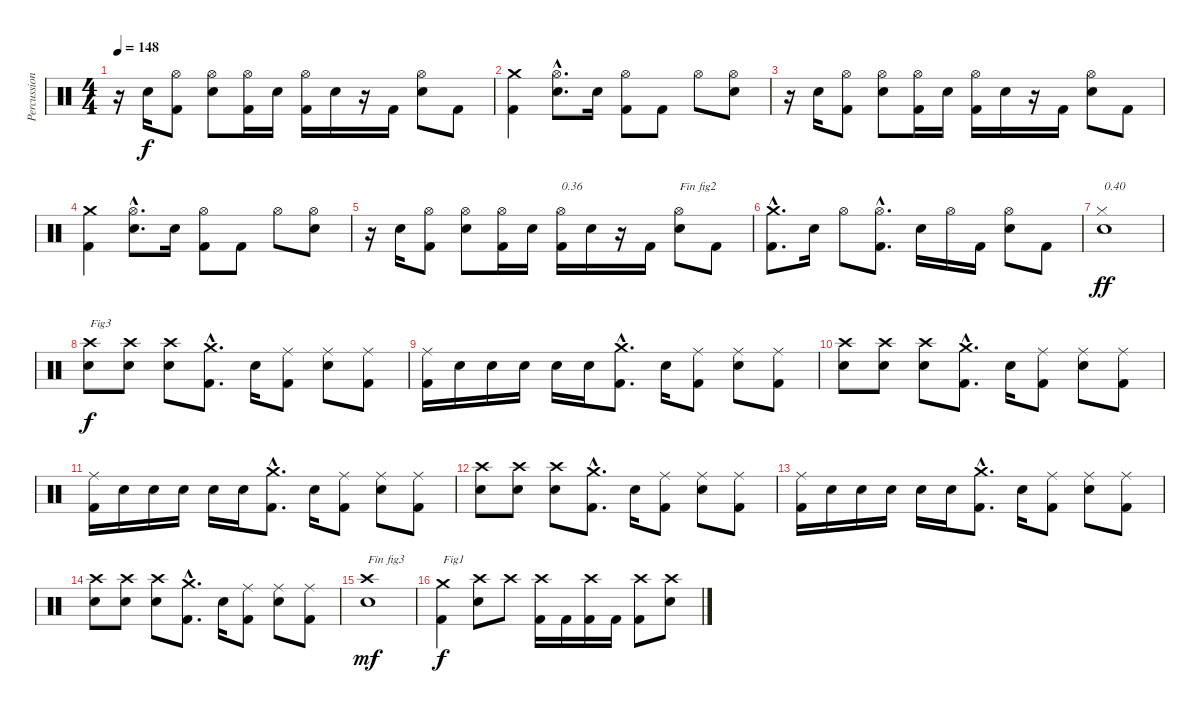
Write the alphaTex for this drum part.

\track ("Percussions" "Percussion") {instrument percussion}
\staff {score}
\articulation defaults
\ts (4 4)
\tempo 148
\clef neutral
\ks c
r.16{dy f} "Electric Snare (hit)".16 ("Kick (hit) 2" "Hi-Hat (open)").8 ("Electric Snare (hit)" "Hi-Hat (open)").8 ("Kick (hit) 2" "Hi-Hat (open)").16 "Electric Snare (hit)".16 ("Kick (hit) 2" "Hi-Hat (open)").16 "Electric Snare (hit)".16 r.16 "Kick (hit) 2".16 ("Electric Snare (hit)" "Hi-Hat (open)").8 "Kick (hit) 2".8 |
("Kick (hit) 2" "Crash medium (hit)").4 ("Electric Snare (hit)"{hac} "Hi-Hat (open)"{hac}).8{d} "Electric Snare (hit)".16 ("Kick (hit) 2" "Hi-Hat (open)").8 "Kick (hit) 2".8 "Hi-Hat (open)".8 ("Electric Snare (hit)" "Hi-Hat (open)").8 |
r.16 "Electric Snare (hit)".16 ("Kick (hit) 2" "Hi-Hat (open)").8 ("Electric Snare (hit)" "Hi-Hat (open)").8 ("Kick (hit) 2" "Hi-Hat (open)").16 "Electric Snare (hit)".16 ("Kick (hit) 2" "Hi-Hat (open)").16 "Electric Snare (hit)".16 r.16 "Kick (hit) 2".16 ("Electric Snare (hit)" "Hi-Hat (open)").8 "Kick (hit) 2".8 |
("Kick (hit) 2" "Crash medium (hit)").4 ("Electric Snare (hit)"{hac} "Hi-Hat (open)"{hac}).8{d} "Electric Snare (hit)".16 ("Kick (hit) 2" "Hi-Hat (open)").8 "Kick (hit) 2".8 "Hi-Hat (open)".8 ("Electric Snare (hit)" "Hi-Hat (open)").8 |
r.16 "Electric Snare (hit)".16 ("Kick (hit) 2" "Hi-Hat (open)").8 ("Electric Snare (hit)" "Hi-Hat (open)").8 ("Kick (hit) 2" "Hi-Hat (open)").16 "Electric Snare (hit)".16 ("Kick (hit) 2" "Hi-Hat (open)").16{txt "0.36"} "Electric Snare (hit)".16 r.16 "Kick (hit) 2".16 ("Electric Snare (hit)" "Hi-Hat (open)").8{txt "Fin fig2"} "Kick (hit) 2".8 |
("Kick (hit) 2"{hac} "Crash medium (hit)"{hac}).8{d} "Electric Snare (hit)".16 "Hi-Hat (open)".8 ("Kick (hit) 2"{hac} "Hi-Hat (open)"{hac}).8{d} "Electric Snare (hit)".16 "Hi-Hat (open)".16 "Kick (hit) 2".16 ("Electric Snare (hit)" "Hi-Hat (open)").8 "Kick (hit) 2".8 |
("Electric Snare (hit)" "Hi-Hat (closed)").1{txt "0.40" dy ff} |
("Electric Snare (hit)" "Crash high (hit)").8{txt "Fig3" dy f} ("Electric Snare (hit)" "Crash high (hit)").8 ("Electric Snare (hit)" "Crash high (hit)").8 ("Kick (hit) 2"{hac} "Crash medium (hit)"{hac}).8{d} "Electric Snare (hit)".16 ("Kick (hit) 2" "Ride (middle)").8 ("Electric Snare (hit)" "Ride (middle)").8 ("Kick (hit) 2" "Ride (middle)").8 |
("Kick (hit) 2" "Ride (middle)").16 "Electric Snare (hit)".16 "Electric Snare (hit)".16 "Electric Snare (hit)".16 "Electric Snare (hit)".16 "Electric Snare (hit)".16 ("Kick (hit) 2"{hac} "Crash medium (hit)"{hac}).8{d} "Electric Snare (hit)".16 ("Kick (hit) 2" "Ride (middle)").8 ("Electric Snare (hit)" "Ride (middle)").8 ("Kick (hit) 2" "Ride (middle)").8 |
("Electric Snare (hit)" "Crash high (hit)").8 ("Electric Snare (hit)" "Crash high (hit)").8 ("Electric Snare (hit)" "Crash high (hit)").8 ("Kick (hit) 2"{hac} "Crash medium (hit)"{hac}).8{d} "Electric Snare (hit)".16 ("Kick (hit) 2" "Ride (middle)").8 ("Electric Snare (hit)" "Ride (middle)").8 ("Kick (hit) 2" "Ride (middle)").8 |
("Kick (hit) 2" "Ride (middle)").16 "Electric Snare (hit)".16 "Electric Snare (hit)".16 "Electric Snare (hit)".16 "Electric Snare (hit)".16 "Electric Snare (hit)".16 ("Kick (hit) 2"{hac} "Crash medium (hit)"{hac}).8{d} "Electric Snare (hit)".16 ("Kick (hit) 2" "Ride (middle)").8 ("Electric Snare (hit)" "Ride (middle)").8 ("Kick (hit) 2" "Ride (middle)").8 |
("Electric Snare (hit)" "Crash high (hit)").8 ("Electric Snare (hit)" "Crash high (hit)").8 ("Electric Snare (hit)" "Crash high (hit)").8 ("Kick (hit) 2"{hac} "Crash medium (hit)"{hac}).8{d} "Electric Snare (hit)".16 ("Kick (hit) 2" "Ride (middle)").8 ("Electric Snare (hit)" "Ride (middle)").8 ("Kick (hit) 2" "Ride (middle)").8 |
("Kick (hit) 2" "Ride (middle)").16 "Electric Snare (hit)".16 "Electric Snare (hit)".16 "Electric Snare (hit)".16 "Electric Snare (hit)".16 "Electric Snare (hit)".16 ("Kick (hit) 2"{hac} "Crash medium (hit)"{hac}).8{d} "Electric Snare (hit)".16 ("Kick (hit) 2" "Ride (middle)").8 ("Electric Snare (hit)" "Ride (middle)").8 ("Kick (hit) 2" "Ride (middle)").8 |
("Electric Snare (hit)" "Crash high (hit)").8 ("Electric Snare (hit)" "Crash high (hit)").8 ("Electric Snare (hit)" "Crash high (hit)").8 ("Kick (hit) 2"{hac} "Crash medium (hit)"{hac}).8{d} "Electric Snare (hit)".16 ("Kick (hit) 2" "Ride (middle)").8 ("Electric Snare (hit)" "Ride (middle)").8 ("Kick (hit) 2" "Ride (middle)").8 |
("Electric Snare (hit)" "Crash high (hit)").1{txt "Fin fig3" dy mf} |
("Kick (hit) 2" "Crash medium (hit)").4{txt "Fig1" dy f} ("Electric Snare (hit)" "Crash high (hit)").8 "Crash high (hit)".8 ("Kick (hit) 2" "Crash high (hit)").16 "Kick (hit) 2".16 ("Kick (hit) 2" "Crash high (hit)").16 "Kick (hit) 2".16 ("Kick (hit) 2" "Crash high (hit)").8 ("Electric Snare (hit)" "Crash high (hit)").8
